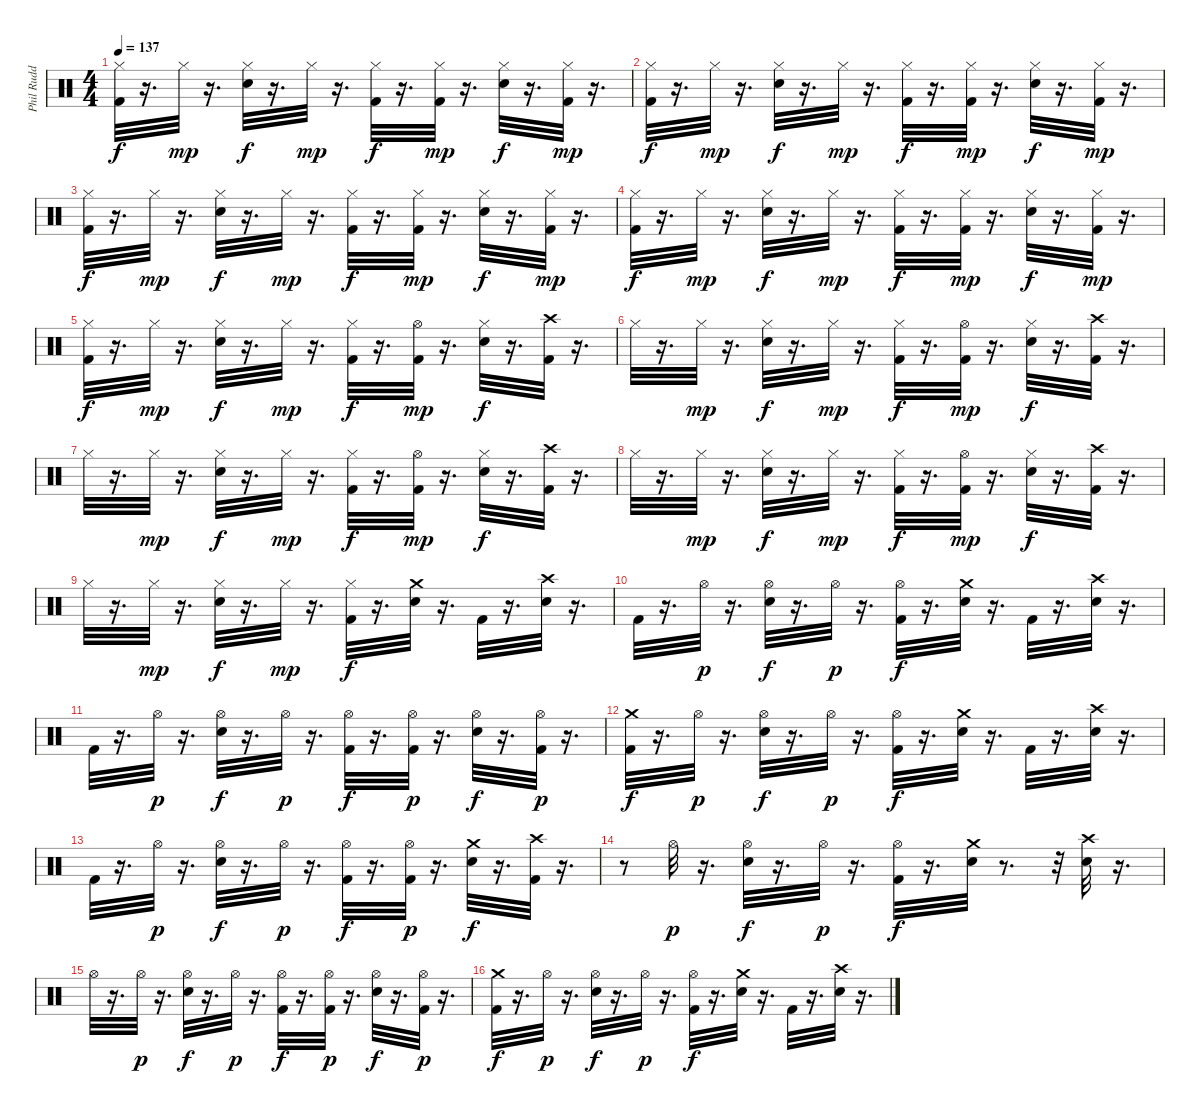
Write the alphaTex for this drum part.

\track ("Phil Rudd" "Phil Rudd") {instrument percussion}
\staff
\articulation defaults
\ts (4 4)
\tempo 137
\clef neutral
\ks c
("Hi-Hat (closed)" "Kick (hit) 2").32{dy f} r.16{d} "Hi-Hat (closed)".32{dy mp} r.16{d} ("Hi-Hat (closed)" "Electric Snare (hit)").32{dy f} r.16{d} "Hi-Hat (closed)".32{dy mp} r.16{d} ("Hi-Hat (closed)" "Kick (hit) 2").32{dy f} r.16{d} ("Hi-Hat (closed)" "Kick (hit) 2").32{dy mp} r.16{d} ("Hi-Hat (closed)" "Electric Snare (hit)").32{dy f} r.16{d} ("Hi-Hat (closed)" "Kick (hit) 2").32{dy mp} r.16{d} |
("Hi-Hat (closed)" "Kick (hit) 2").32{dy f} r.16{d} "Hi-Hat (closed)".32{dy mp} r.16{d} ("Hi-Hat (closed)" "Electric Snare (hit)").32{dy f} r.16{d} "Hi-Hat (closed)".32{dy mp} r.16{d} ("Hi-Hat (closed)" "Kick (hit) 2").32{dy f} r.16{d} ("Hi-Hat (closed)" "Kick (hit) 2").32{dy mp} r.16{d} ("Hi-Hat (closed)" "Electric Snare (hit)").32{dy f} r.16{d} ("Hi-Hat (closed)" "Kick (hit) 2").32{dy mp} r.16{d} |
("Hi-Hat (closed)" "Kick (hit) 2").32{dy f} r.16{d} "Hi-Hat (closed)".32{dy mp} r.16{d} ("Hi-Hat (closed)" "Electric Snare (hit)").32{dy f} r.16{d} "Hi-Hat (closed)".32{dy mp} r.16{d} ("Hi-Hat (closed)" "Kick (hit) 2").32{dy f} r.16{d} ("Hi-Hat (closed)" "Kick (hit) 2").32{dy mp} r.16{d} ("Hi-Hat (closed)" "Electric Snare (hit)").32{dy f} r.16{d} ("Hi-Hat (closed)" "Kick (hit) 2").32{dy mp} r.16{d} |
("Hi-Hat (closed)" "Kick (hit) 2").32{dy f} r.16{d} "Hi-Hat (closed)".32{dy mp} r.16{d} ("Hi-Hat (closed)" "Electric Snare (hit)").32{dy f} r.16{d} "Hi-Hat (closed)".32{dy mp} r.16{d} ("Hi-Hat (closed)" "Kick (hit) 2").32{dy f} r.16{d} ("Hi-Hat (closed)" "Kick (hit) 2").32{dy mp} r.16{d} ("Hi-Hat (closed)" "Electric Snare (hit)").32{dy f} r.16{d} ("Hi-Hat (closed)" "Kick (hit) 2").32{dy mp} r.16{d} |
("Hi-Hat (closed)" "Kick (hit) 2").32{dy f} r.16{d} "Hi-Hat (closed)".32{dy mp} r.16{d} ("Hi-Hat (closed)" "Electric Snare (hit)").32{dy f} r.16{d} "Hi-Hat (closed)".32{dy mp} r.16{d} ("Hi-Hat (closed)" "Kick (hit) 2").32{dy f} r.16{d} ("Hi-Hat (open)" "Kick (hit) 2").32{dy mp} r.16{d} ("Hi-Hat (closed)" "Electric Snare (hit)").32{dy f} r.16{d} ("Crash high (hit)" "Kick (hit) 2").32 r.16{d} |
"Hi-Hat (closed)".32 r.16{d} "Hi-Hat (closed)".32{dy mp} r.16{d} ("Hi-Hat (closed)" "Electric Snare (hit)").32{dy f} r.16{d} "Hi-Hat (closed)".32{dy mp} r.16{d} ("Hi-Hat (closed)" "Kick (hit) 2").32{dy f} r.16{d} ("Hi-Hat (open)" "Kick (hit) 2").32{dy mp} r.16{d} ("Hi-Hat (closed)" "Electric Snare (hit)").32{dy f} r.16{d} ("Crash high (hit)" "Kick (hit) 2").32 r.16{d} |
"Hi-Hat (closed)".32 r.16{d} "Hi-Hat (closed)".32{dy mp} r.16{d} ("Hi-Hat (closed)" "Electric Snare (hit)").32{dy f} r.16{d} "Hi-Hat (closed)".32{dy mp} r.16{d} ("Hi-Hat (closed)" "Kick (hit) 2").32{dy f} r.16{d} ("Hi-Hat (open)" "Kick (hit) 2").32{dy mp} r.16{d} ("Hi-Hat (closed)" "Electric Snare (hit)").32{dy f} r.16{d} ("Crash high (hit)" "Kick (hit) 2").32 r.16{d} |
"Hi-Hat (closed)".32 r.16{d} "Hi-Hat (closed)".32{dy mp} r.16{d} ("Hi-Hat (closed)" "Electric Snare (hit)").32{dy f} r.16{d} "Hi-Hat (closed)".32{dy mp} r.16{d} ("Hi-Hat (closed)" "Kick (hit) 2").32{dy f} r.16{d} ("Hi-Hat (open)" "Kick (hit) 2").32{dy mp} r.16{d} ("Hi-Hat (closed)" "Electric Snare (hit)").32{dy f} r.16{d} ("Crash high (hit)" "Kick (hit) 2").32 r.16{d} |
"Hi-Hat (closed)".32 r.16{d} "Hi-Hat (closed)".32{dy mp} r.16{d} ("Hi-Hat (closed)" "Electric Snare (hit)").32{dy f} r.16{d} "Hi-Hat (closed)".32{dy mp} r.16{d} ("Hi-Hat (closed)" "Kick (hit) 2").32{dy f} r.16{d} ("Crash medium (hit)" "Electric Snare (hit)").32 r.16{d} "Kick (hit) 2".32 r.16{d} ("Crash high (hit)" "Electric Snare (hit)").32 r.16{d} |
"Kick (hit) 2".32 r.16{d} "Hi-Hat (open)".32{dy p} r.16{d} ("Hi-Hat (open)" "Electric Snare (hit)").32{dy f} r.16{d} "Hi-Hat (open)".32{dy p} r.16{d} ("Hi-Hat (open)" "Kick (hit) 2").32{dy f} r.16{d} ("Crash medium (hit)" "Electric Snare (hit)").32 r.16{d} "Kick (hit) 2".32 r.16{d} ("Crash high (hit)" "Electric Snare (hit)").32 r.16{d} |
"Kick (hit) 2".32 r.16{d} "Hi-Hat (open)".32{dy p} r.16{d} ("Hi-Hat (open)" "Electric Snare (hit)").32{dy f} r.16{d} "Hi-Hat (open)".32{dy p} r.16{d} ("Hi-Hat (open)" "Kick (hit) 2").32{dy f} r.16{d} ("Hi-Hat (open)" "Kick (hit) 2").32{dy p} r.16{d} ("Hi-Hat (open)" "Electric Snare (hit)").32{dy f} r.16{d} ("Hi-Hat (open)" "Kick (hit) 2").32{dy p} r.16{d} |
("Crash medium (hit)" "Kick (hit) 2").32{dy f} r.16{d} "Hi-Hat (open)".32{dy p} r.16{d} ("Hi-Hat (open)" "Electric Snare (hit)").32{dy f} r.16{d} "Hi-Hat (open)".32{dy p} r.16{d} ("Hi-Hat (open)" "Kick (hit) 2").32{dy f} r.16{d} ("Crash medium (hit)" "Electric Snare (hit)").32 r.16{d} "Kick (hit) 2".32 r.16{d} ("Crash high (hit)" "Electric Snare (hit)").32 r.16{d} |
"Kick (hit) 2".32 r.16{d} "Hi-Hat (open)".32{dy p} r.16{d} ("Hi-Hat (open)" "Electric Snare (hit)").32{dy f} r.16{d} "Hi-Hat (open)".32{dy p} r.16{d} ("Kick (hit) 2" "Hi-Hat (open)").32{dy f} r.16{d} ("Hi-Hat (open)" "Kick (hit) 2").32{dy p} r.16{d} ("Crash medium (hit)" "Electric Snare (hit)").32{dy f} r.16{d} ("Crash high (hit)" "Kick (hit) 2").32 r.16{d} |
r.8 "Hi-Hat (open)".32{dy p} r.16{d} ("Hi-Hat (open)" "Electric Snare (hit)").32{dy f} r.16{d} "Hi-Hat (open)".32{dy p} r.16{d} ("Hi-Hat (open)" "Kick (hit) 2").32{dy f} r.16{d} ("Crash medium (hit)" "Electric Snare (hit)").32 r.8{d} r.32 ("Crash high (hit)" "Electric Snare (hit)").32 r.16{d} |
"Hi-Hat (open)".32 r.16{d} "Hi-Hat (open)".32{dy p} r.16{d} ("Hi-Hat (open)" "Electric Snare (hit)").32{dy f} r.16{d} "Hi-Hat (open)".32{dy p} r.16{d} ("Hi-Hat (open)" "Kick (hit) 2").32{dy f} r.16{d} ("Hi-Hat (open)" "Kick (hit) 2").32{dy p} r.16{d} ("Hi-Hat (open)" "Electric Snare (hit)").32{dy f} r.16{d} ("Hi-Hat (open)" "Kick (hit) 2").32{dy p} r.16{d} |
("Crash medium (hit)" "Kick (hit) 2").32{dy f} r.16{d} "Hi-Hat (open)".32{dy p} r.16{d} ("Hi-Hat (open)" "Electric Snare (hit)").32{dy f} r.16{d} "Hi-Hat (open)".32{dy p} r.16{d} ("Hi-Hat (open)" "Kick (hit) 2").32{dy f} r.16{d} ("Crash medium (hit)" "Electric Snare (hit)").32 r.16{d} "Kick (hit) 2".32 r.16{d} ("Crash high (hit)" "Electric Snare (hit)").32 r.16{d}
